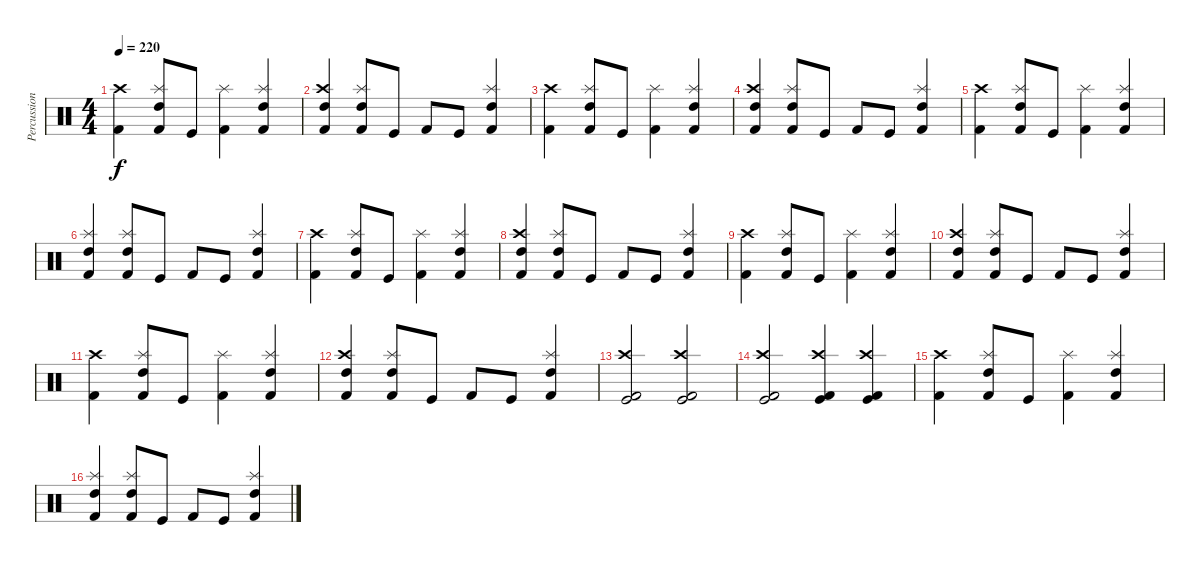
\track ("Percussions" "Percussion") {instrument percussion}
\staff {score}
\articulation defaults
\ts (4 4)
\tempo 220
\clef neutral
\ks c
("Kick (hit) 2" "Crash high (hit)").4{dy f} ("Kick (hit) 2" "Splash (hit)" "High Tom (hit)").8 "Kick (hit)".8 ("Kick (hit) 2" "Splash (hit)").4 ("Kick (hit) 2" "Splash (hit)" "High Tom (hit)").4 |
("Kick (hit) 2" "Crash high (hit)" "High Tom (hit)").4 ("Kick (hit) 2" "Splash (hit)" "High Tom (hit)").8 "Kick (hit)".8 "Kick (hit) 2".8 "Kick (hit)".8 ("Kick (hit) 2" "Splash (hit)" "High Tom (hit)").4 |
("Kick (hit) 2" "Crash high (hit)").4 ("Kick (hit) 2" "Splash (hit)" "High Tom (hit)").8 "Kick (hit)".8 ("Kick (hit) 2" "Splash (hit)").4 ("Kick (hit) 2" "Splash (hit)" "High Tom (hit)").4 |
("Kick (hit) 2" "Crash high (hit)" "High Tom (hit)").4 ("Kick (hit) 2" "Splash (hit)" "High Tom (hit)").8 "Kick (hit)".8 "Kick (hit) 2".8 "Kick (hit)".8 ("Kick (hit) 2" "Splash (hit)" "High Tom (hit)").4 |
("Kick (hit) 2" "Crash high (hit)").4 ("Kick (hit) 2" "Splash (hit)" "High Tom (hit)").8 "Kick (hit)".8 ("Kick (hit) 2" "Splash (hit)").4 ("Kick (hit) 2" "Splash (hit)" "High Tom (hit)").4 |
("Kick (hit) 2" "Splash (hit)" "High Tom (hit)").4 ("Kick (hit) 2" "Splash (hit)" "High Tom (hit)").8 "Kick (hit)".8 "Kick (hit) 2".8 "Kick (hit)".8 ("Kick (hit) 2" "Splash (hit)" "High Tom (hit)").4 |
("Kick (hit) 2" "Crash high (hit)").4 ("Kick (hit) 2" "Splash (hit)" "High Tom (hit)").8 "Kick (hit)".8 ("Kick (hit) 2" "Splash (hit)").4 ("Kick (hit) 2" "Splash (hit)" "High Tom (hit)").4 |
("Kick (hit) 2" "Crash high (hit)" "High Tom (hit)").4 ("Kick (hit) 2" "Splash (hit)" "High Tom (hit)").8 "Kick (hit)".8 "Kick (hit) 2".8 "Kick (hit)".8 ("Kick (hit) 2" "Splash (hit)" "High Tom (hit)").4 |
("Kick (hit) 2" "Crash high (hit)").4 ("Kick (hit) 2" "Splash (hit)" "High Tom (hit)").8 "Kick (hit)".8 ("Kick (hit) 2" "Splash (hit)").4 ("Kick (hit) 2" "Splash (hit)" "High Tom (hit)").4 |
("Kick (hit) 2" "Crash high (hit)" "High Tom (hit)").4 ("Kick (hit) 2" "Splash (hit)" "High Tom (hit)").8 "Kick (hit)".8 "Kick (hit) 2".8 "Kick (hit)".8 ("Kick (hit) 2" "Splash (hit)" "High Tom (hit)").4 |
("Kick (hit) 2" "Crash high (hit)").4 ("Kick (hit) 2" "Splash (hit)" "High Tom (hit)").8 "Kick (hit)".8 ("Kick (hit) 2" "Splash (hit)").4 ("Kick (hit) 2" "Splash (hit)" "High Tom (hit)").4 |
("Kick (hit) 2" "Crash high (hit)" "High Tom (hit)").4 ("Kick (hit) 2" "Splash (hit)" "High Tom (hit)").8 "Kick (hit)".8 "Kick (hit) 2".8 "Kick (hit)".8 ("Kick (hit) 2" "Splash (hit)" "High Tom (hit)").4 |
("Kick (hit) 2" "Kick (hit)" "Crash high (hit)").2 ("Kick (hit) 2" "Kick (hit)" "Crash high (hit)").2 |
("Kick (hit) 2" "Kick (hit)" "Crash high (hit)").2 ("Kick (hit) 2" "Kick (hit)" "Crash high (hit)").4 ("Kick (hit) 2" "Kick (hit)" "Crash high (hit)").4 |
("Kick (hit) 2" "Crash high (hit)").4 ("Kick (hit) 2" "Splash (hit)" "High Tom (hit)").8 "Kick (hit)".8 ("Kick (hit) 2" "Splash (hit)").4 ("Kick (hit) 2" "Splash (hit)" "High Tom (hit)").4 |
("Kick (hit) 2" "Splash (hit)" "High Tom (hit)").4 ("Kick (hit) 2" "Splash (hit)" "High Tom (hit)").8 "Kick (hit)".8 "Kick (hit) 2".8 "Kick (hit)".8 ("Kick (hit) 2" "Splash (hit)" "High Tom (hit)").4
